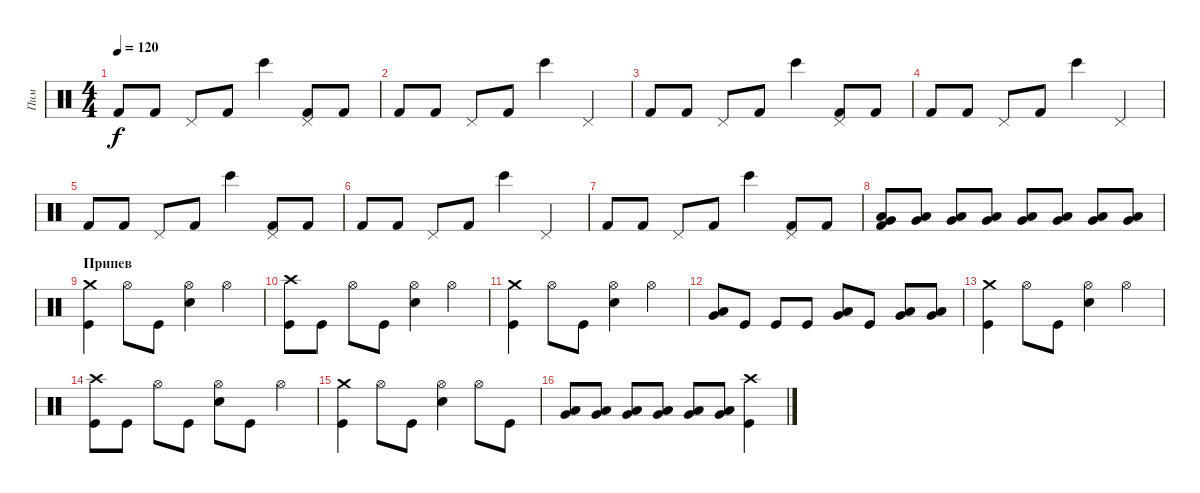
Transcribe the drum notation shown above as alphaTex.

\track ("Пим" "Пим") {instrument percussion}
\staff {score}
\articulation defaults
\ts (4 4)
\tempo 120
\clef neutral
\ks c "Kick (hit) 2".8{dy f} "Kick (hit) 2".8 "Pedal Hi-Hat (hit)".8 "Kick (hit) 2".8 "Bongo High (hit)".4
("Pedal Hi-Hat (hit)" "Kick (hit) 2").8 "Kick (hit) 2".8 |
"Kick (hit) 2".8 "Kick (hit) 2".8 "Pedal Hi-Hat (hit)".8 "Kick (hit) 2".8 "Bongo High (hit)".4 "Pedal Hi-Hat (hit)".4 |
"Kick (hit) 2".8 "Kick (hit) 2".8 "Pedal Hi-Hat (hit)".8 "Kick (hit) 2".8 "Bongo High (hit)".4 ("Pedal Hi-Hat (hit)" "Kick (hit) 2").8 "Kick (hit) 2".8 |
"Kick (hit) 2".8 "Kick (hit) 2".8 "Pedal Hi-Hat (hit)".8 "Kick (hit) 2".8 "Bongo High (hit)".4 "Pedal Hi-Hat (hit)".4 |
"Kick (hit) 2".8 "Kick (hit) 2".8 "Pedal Hi-Hat (hit)".8 "Kick (hit) 2".8 "Bongo High (hit)".4 ("Pedal Hi-Hat (hit)" "Kick (hit) 2").8 "Kick (hit) 2".8 |
"Kick (hit) 2".8 "Kick (hit) 2".8 "Pedal Hi-Hat (hit)".8 "Kick (hit) 2".8 "Bongo High (hit)".4 "Pedal Hi-Hat (hit)".4 |
"Kick (hit) 2".8 "Kick (hit) 2".8 "Pedal Hi-Hat (hit)".8 "Kick (hit) 2".8 "Bongo High (hit)".4 ("Pedal Hi-Hat (hit)" "Kick (hit) 2").8 "Kick (hit) 2".8 |
("Very Low Tom (hit)" "Low Floor Tom (hit)" "Kick (hit) 2").8 ("Very Low Tom (hit)" "Low Floor Tom (hit)").8 ("Very Low Tom (hit)" "Low Floor Tom (hit)").8 ("Very Low Tom (hit)" "Low Floor Tom (hit)").8 ("Very Low Tom (hit)" "Low Floor Tom (hit)").8 ("Very Low Tom (hit)" "Low Floor Tom (hit)").8 ("Very Low Tom (hit)" "Low Floor Tom (hit)").8 ("Very Low Tom (hit)" "Low Floor Tom (hit)").8 |
\section ("" "Припев")
("Crash medium (hit)" "Kick (hit)").4 "Hi-Hat (open)".8 "Kick (hit)".8 ("Hi-Hat (open)" "Snare (hit) 2").4 "Hi-Hat (open)".4 |
("Crash high (hit)" "Kick (hit)").8 "Kick (hit)".8 "Hi-Hat (open)".8 "Kick (hit)".8 ("Hi-Hat (open)" "Snare (hit) 2").4 "Hi-Hat (open)".4 |
("Crash medium (hit)" "Kick (hit)").4 "Hi-Hat (open)".8 "Kick (hit)".8 ("Hi-Hat (open)" "Snare (hit) 2").4 "Hi-Hat (open)".4 |
("Low Tom (hit)" "Very Low Tom (hit)").8 "Kick (hit)".8 "Kick (hit)".8 "Kick (hit)".8 ("Very Low Tom (hit)" "Low Floor Tom (hit)").8 "Kick (hit)".8 ("Low Tom (hit)" "Very Low Tom (hit)").8 ("Very Low Tom (hit)" "Low Floor Tom (hit)").8 |
("Crash medium (hit)" "Kick (hit)").4 "Hi-Hat (open)".8 "Kick (hit)".8 ("Hi-Hat (open)" "Snare (hit) 2").4 "Hi-Hat (open)".4 |
("Crash high (hit)" "Kick (hit)").8 "Kick (hit)".8 "Hi-Hat (open)".8 "Kick (hit)".8 ("Hi-Hat (open)" "Snare (hit) 2").8 "Kick (hit)".8 "Hi-Hat (open)".4 |
("Crash medium (hit)" "Kick (hit)").4 "Hi-Hat (open)".8 "Kick (hit)".8 ("Hi-Hat (open)" "Snare (hit) 2").4 "Hi-Hat (open)".8 "Kick (hit)".8 |
("Low Tom (hit)" "Very Low Tom (hit)").8 ("Low Tom (hit)" "Very Low Tom (hit)").8 ("Low Tom (hit)" "Very Low Tom (hit)").8 ("Low Tom (hit)" "Very Low Tom (hit)").8 ("Low Tom (hit)" "Very Low Tom (hit)").8 ("Low Tom (hit)" "Very Low Tom (hit)").8 ("Crash high (hit)" "Kick (hit)").4
